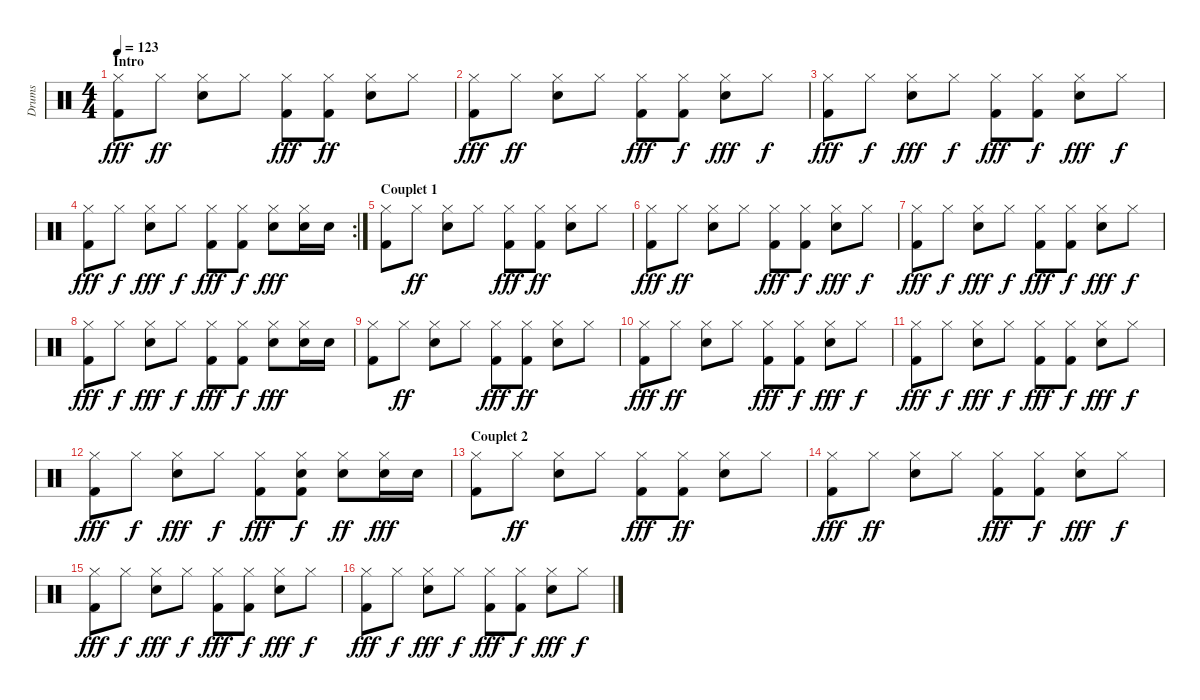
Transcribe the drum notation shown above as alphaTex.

\track ("Drums" "Drums") {instrument percussion}
\staff {score}
\articulation defaults
\ts (4 4)
\section ("" "Intro")
\tempo 123
\clef neutral
\ks c
("Kick (hit) 2" "Hi-Hat (closed)").8{dy fff} "Hi-Hat (closed)".8{dy ff} ("Snare (hit) 2" "Hi-Hat (closed)").8 "Hi-Hat (closed)".8 ("Kick (hit) 2" "Hi-Hat (closed)").8{dy fff} ("Kick (hit) 2" "Hi-Hat (closed)").8{dy ff} ("Snare (hit) 2" "Hi-Hat (closed)").8 "Hi-Hat (closed)".8 |
("Kick (hit) 2" "Hi-Hat (closed)").8{dy fff} "Hi-Hat (closed)".8{dy ff} ("Snare (hit) 2" "Hi-Hat (closed)").8 "Hi-Hat (closed)".8 ("Kick (hit) 2" "Hi-Hat (closed)").8{dy fff} ("Kick (hit) 2" "Hi-Hat (closed)").8{dy f} ("Snare (hit) 2" "Hi-Hat (closed)").8{dy fff} "Hi-Hat (closed)".8{dy f} |
("Kick (hit) 2" "Hi-Hat (closed)").8{dy fff} "Hi-Hat (closed)".8{dy f} ("Snare (hit) 2" "Hi-Hat (closed)").8{dy fff} "Hi-Hat (closed)".8{dy f} ("Kick (hit) 2" "Hi-Hat (closed)").8{dy fff} ("Kick (hit) 2" "Hi-Hat (closed)").8{dy f} ("Snare (hit) 2" "Hi-Hat (closed)").8{dy fff} "Hi-Hat (closed)".8{dy f} |
\rc 2
("Kick (hit) 2" "Hi-Hat (closed)").8{dy fff} "Hi-Hat (closed)".8{dy f} ("Snare (hit) 2" "Hi-Hat (closed)").8{dy fff} "Hi-Hat (closed)".8{dy f} ("Kick (hit) 2" "Hi-Hat (closed)").8{dy fff} ("Kick (hit) 2" "Hi-Hat (closed)").8{dy f} ("Snare (hit) 2" "Hi-Hat (closed)").8{dy fff} ("Snare (hit) 2" "Hi-Hat (closed)").16 "Snare (hit) 2".16 |
\section ("" "Couplet 1")
("Kick (hit) 2" "Hi-Hat (closed)").8 "Hi-Hat (closed)".8{dy ff} ("Snare (hit) 2" "Hi-Hat (closed)").8 "Hi-Hat (closed)".8 ("Kick (hit) 2" "Hi-Hat (closed)").8{dy fff} ("Kick (hit) 2" "Hi-Hat (closed)").8{dy ff} ("Snare (hit) 2" "Hi-Hat (closed)").8 "Hi-Hat (closed)".8 |
("Kick (hit) 2" "Hi-Hat (closed)").8{dy fff} "Hi-Hat (closed)".8{dy ff} ("Snare (hit) 2" "Hi-Hat (closed)").8 "Hi-Hat (closed)".8 ("Kick (hit) 2" "Hi-Hat (closed)").8{dy fff} ("Kick (hit) 2" "Hi-Hat (closed)").8{dy f} ("Snare (hit) 2" "Hi-Hat (closed)").8{dy fff} "Hi-Hat (closed)".8{dy f} |
("Kick (hit) 2" "Hi-Hat (closed)").8{dy fff} "Hi-Hat (closed)".8{dy f} ("Snare (hit) 2" "Hi-Hat (closed)").8{dy fff} "Hi-Hat (closed)".8{dy f} ("Kick (hit) 2" "Hi-Hat (closed)").8{dy fff} ("Kick (hit) 2" "Hi-Hat (closed)").8{dy f} ("Snare (hit) 2" "Hi-Hat (closed)").8{dy fff} "Hi-Hat (closed)".8{dy f} |
("Kick (hit) 2" "Hi-Hat (closed)").8{dy fff} "Hi-Hat (closed)".8{dy f} ("Snare (hit) 2" "Hi-Hat (closed)").8{dy fff} "Hi-Hat (closed)".8{dy f} ("Kick (hit) 2" "Hi-Hat (closed)").8{dy fff} ("Kick (hit) 2" "Hi-Hat (closed)").8{dy f} ("Snare (hit) 2" "Hi-Hat (closed)").8{dy fff} ("Snare (hit) 2" "Hi-Hat (closed)").16 "Snare (hit) 2".16 |
("Kick (hit) 2" "Hi-Hat (closed)").8 "Hi-Hat (closed)".8{dy ff} ("Snare (hit) 2" "Hi-Hat (closed)").8 "Hi-Hat (closed)".8 ("Kick (hit) 2" "Hi-Hat (closed)").8{dy fff} ("Kick (hit) 2" "Hi-Hat (closed)").8{dy ff} ("Snare (hit) 2" "Hi-Hat (closed)").8 "Hi-Hat (closed)".8 |
("Kick (hit) 2" "Hi-Hat (closed)").8{dy fff} "Hi-Hat (closed)".8{dy ff} ("Snare (hit) 2" "Hi-Hat (closed)").8 "Hi-Hat (closed)".8 ("Kick (hit) 2" "Hi-Hat (closed)").8{dy fff} ("Kick (hit) 2" "Hi-Hat (closed)").8{dy f} ("Snare (hit) 2" "Hi-Hat (closed)").8{dy fff} "Hi-Hat (closed)".8{dy f} |
("Kick (hit) 2" "Hi-Hat (closed)").8{dy fff} "Hi-Hat (closed)".8{dy f} ("Snare (hit) 2" "Hi-Hat (closed)").8{dy fff} "Hi-Hat (closed)".8{dy f} ("Kick (hit) 2" "Hi-Hat (closed)").8{dy fff} ("Kick (hit) 2" "Hi-Hat (closed)").8{dy f} ("Snare (hit) 2" "Hi-Hat (closed)").8{dy fff} "Hi-Hat (closed)".8{dy f} |
("Kick (hit) 2" "Hi-Hat (closed)").8{dy fff} "Hi-Hat (closed)".8{dy f} ("Snare (hit) 2" "Hi-Hat (closed)").8{dy fff} "Hi-Hat (closed)".8{dy f} ("Kick (hit) 2" "Hi-Hat (closed)").8{dy fff} ("Kick (hit) 2" "Snare (hit) 2" "Hi-Hat (closed)").8{dy f} ("Snare (hit) 2" "Hi-Hat (closed)").8{dy ff} ("Snare (hit) 2" "Hi-Hat (closed)").16{dy fff} "Snare (hit) 2".16 |
\section ("" "Couplet 2")
("Kick (hit) 2" "Hi-Hat (closed)").8 "Hi-Hat (closed)".8{dy ff} ("Snare (hit) 2" "Hi-Hat (closed)").8 "Hi-Hat (closed)".8 ("Kick (hit) 2" "Hi-Hat (closed)").8{dy fff} ("Kick (hit) 2" "Hi-Hat (closed)").8{dy ff} ("Snare (hit) 2" "Hi-Hat (closed)").8 "Hi-Hat (closed)".8 |
("Kick (hit) 2" "Hi-Hat (closed)").8{dy fff} "Hi-Hat (closed)".8{dy ff} ("Snare (hit) 2" "Hi-Hat (closed)").8 "Hi-Hat (closed)".8 ("Kick (hit) 2" "Hi-Hat (closed)").8{dy fff} ("Kick (hit) 2" "Hi-Hat (closed)").8{dy f} ("Snare (hit) 2" "Hi-Hat (closed)").8{dy fff} "Hi-Hat (closed)".8{dy f} |
("Kick (hit) 2" "Hi-Hat (closed)").8{dy fff} "Hi-Hat (closed)".8{dy f} ("Snare (hit) 2" "Hi-Hat (closed)").8{dy fff} "Hi-Hat (closed)".8{dy f} ("Kick (hit) 2" "Hi-Hat (closed)").8{dy fff} ("Kick (hit) 2" "Hi-Hat (closed)").8{dy f} ("Snare (hit) 2" "Hi-Hat (closed)").8{dy fff} "Hi-Hat (closed)".8{dy f} |
("Kick (hit) 2" "Hi-Hat (closed)").8{dy fff} "Hi-Hat (closed)".8{dy f} ("Snare (hit) 2" "Hi-Hat (closed)").8{dy fff} "Hi-Hat (closed)".8{dy f} ("Kick (hit) 2" "Hi-Hat (closed)").8{dy fff} ("Kick (hit) 2" "Hi-Hat (closed)").8{dy f} ("Snare (hit) 2" "Hi-Hat (closed)").8{dy fff} "Hi-Hat (closed)".8{dy f}
